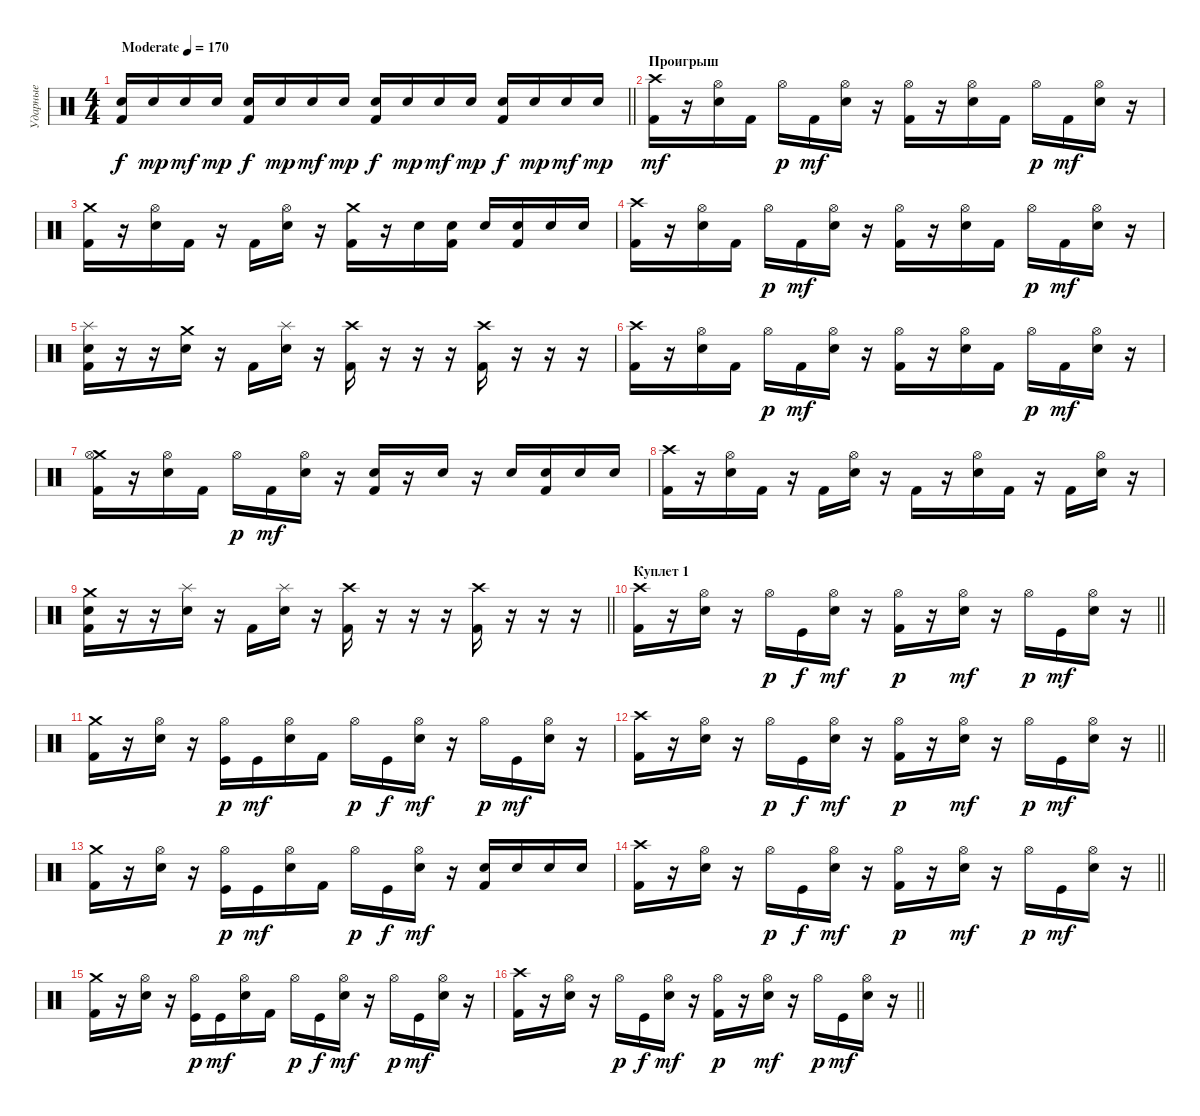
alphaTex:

\track ("Ударные" "Ударные") {instrument percussion}
\staff {score}
\articulation defaults
\ts (4 4)
\tempo (170 "Moderate")
\clef neutral
\barLineRight lightlight
\ks c
("Electric Snare (hit)" "Kick (hit) 2").16{dy f} "Snare (hit) 2".16{dy mp} "Snare (hit) 2".16{dy mf} "Snare (hit) 2".16{dy mp} ("Electric Snare (hit)" "Kick (hit) 2").16{dy f} "Snare (hit) 2".16{dy mp} "Snare (hit) 2".16{dy mf} "Snare (hit) 2".16{dy mp} ("Electric Snare (hit)" "Kick (hit) 2").16{dy f} "Snare (hit) 2".16{dy mp} "Snare (hit) 2".16{dy mf} "Snare (hit) 2".16{dy mp} ("Electric Snare (hit)" "Kick (hit) 2").16{dy f} "Snare (hit) 2".16{dy mp} "Snare (hit) 2".16{dy mf} "Snare (hit) 2".16{dy mp} |
\section ("" "Проигрыш")
("Crash high (hit)" "Kick (hit) 2").16{dy mf} r.16 ("Hi-Hat (open)" "Electric Snare (hit)").16 "Kick (hit) 2".16 "Hi-Hat (open)".16{dy p} "Kick (hit) 2".16{dy mf} ("Hi-Hat (open)" "Electric Snare (hit)").16 r.16 ("Hi-Hat (open)" "Kick (hit) 2").16 r.16 ("Hi-Hat (open)" "Electric Snare (hit)").16 "Kick (hit) 2".16 "Hi-Hat (open)".16{dy p} "Kick (hit) 2".16{dy mf} ("Hi-Hat (open)" "Electric Snare (hit)").16 r.16 |
("Crash medium (hit)" "Kick (hit) 2").16 r.16 ("Hi-Hat (open)" "Electric Snare (hit)").16 "Kick (hit) 2".16 r.16 "Kick (hit) 2".16 ("Hi-Hat (open)" "Electric Snare (hit)").16 r.16 ("Crash medium (hit)" "Kick (hit) 2").16 r.16 "Electric Snare (hit)".16 ("Electric Snare (hit)" "Kick (hit) 2").16 "Electric Snare (hit)".16 ("Electric Snare (hit)" "Kick (hit) 2").16 "Electric Snare (hit)".16 "Electric Snare (hit)".16 |
("Crash high (hit)" "Kick (hit) 2").16 r.16 ("Hi-Hat (open)" "Electric Snare (hit)").16 "Kick (hit) 2".16 "Hi-Hat (open)".16{dy p} "Kick (hit) 2".16{dy mf} ("Hi-Hat (open)" "Electric Snare (hit)").16 r.16 ("Hi-Hat (open)" "Kick (hit) 2").16 r.16 ("Hi-Hat (open)" "Electric Snare (hit)").16 "Kick (hit) 2".16 "Hi-Hat (open)".16{dy p} "Kick (hit) 2".16{dy mf} ("Hi-Hat (open)" "Electric Snare (hit)").16 r.16 |
("Splash (hit)" "Electric Snare (hit)" "Kick (hit) 2").16 r.16 r.16 ("Crash medium (hit)" "Electric Snare (hit)").16 r.16 "Kick (hit) 2".16 ("Splash (hit)" "Electric Snare (hit)").16 r.16 ("Crash high (hit)" "Kick (hit) 2").16 r.16 r.16 r.16 ("Crash high (hit)" "Kick (hit) 2").16 r.16 r.16 r.16 |
("Crash high (hit)" "Kick (hit) 2").16 r.16 ("Hi-Hat (open)" "Electric Snare (hit)").16 "Kick (hit) 2".16 "Hi-Hat (open)".16{dy p} "Kick (hit) 2".16{dy mf} ("Hi-Hat (open)" "Electric Snare (hit)").16 r.16 ("Hi-Hat (open)" "Kick (hit) 2").16 r.16 ("Hi-Hat (open)" "Electric Snare (hit)").16 "Kick (hit) 2".16 "Hi-Hat (open)".16{dy p} "Kick (hit) 2".16{dy mf} ("Hi-Hat (open)" "Electric Snare (hit)").16 r.16 |
("Crash medium (hit)" "Hi-Hat (open)" "Kick (hit) 2").16 r.16 ("Hi-Hat (open)" "Electric Snare (hit)").16 "Kick (hit) 2".16 "Hi-Hat (open)".16{dy p} "Kick (hit) 2".16{dy mf} ("Hi-Hat (open)" "Electric Snare (hit)").16 r.16 ("Electric Snare (hit)" "Kick (hit) 2").16 r.16 "Electric Snare (hit)".16 r.16 "Electric Snare (hit)".16 ("Electric Snare (hit)" "Kick (hit) 2").16 "Electric Snare (hit)".16 "Electric Snare (hit)".16 |
("Crash high (hit)" "Kick (hit) 2").16 r.16 ("Hi-Hat (open)" "Electric Snare (hit)").16 "Kick (hit) 2".16 r.16 "Kick (hit) 2".16 ("Hi-Hat (open)" "Electric Snare (hit)").16 r.16 "Kick (hit) 2".16 r.16 ("Hi-Hat (open)" "Electric Snare (hit)").16 "Kick (hit) 2".16 r.16 "Kick (hit) 2".16 ("Hi-Hat (open)" "Electric Snare (hit)").16 r.16 |
\barLineRight lightlight
("Crash medium (hit)" "Electric Snare (hit)" "Kick (hit) 2").16 r.16 r.16 ("Splash (hit)" "Electric Snare (hit)").16 r.16 "Kick (hit) 2".16 ("Splash (hit)" "Electric Snare (hit)").16 r.16 ("Crash high (hit)" "Kick (hit) 2").16 r.16 r.16 r.16 ("Crash high (hit)" "Kick (hit) 2").16 r.16 r.16 r.16 |
\section ("" "Куплет 1")
\barLineRight lightlight
("Crash high (hit)" "Kick (hit) 2").16 r.16 ("Hi-Hat (open)" "Electric Snare (hit)").16 r.16 "Hi-Hat (open)".16{dy p} "Kick (hit)".16{dy f} ("Hi-Hat (open)" "Electric Snare (hit)").16{dy mf} r.16 ("Hi-Hat (open)" "Kick (hit) 2").16{dy p} r.16 ("Hi-Hat (open)" "Electric Snare (hit)").16{dy mf} r.16 "Hi-Hat (open)".16{dy p} "Kick (hit)".16{dy mf} ("Hi-Hat (open)" "Electric Snare (hit)").16 r.16 |
("Crash medium (hit)" "Kick (hit) 2").16 r.16 ("Hi-Hat (open)" "Electric Snare (hit)").16 r.16 ("Hi-Hat (open)" "Kick (hit)").16{dy p} "Kick (hit)".16{dy mf} ("Hi-Hat (open)" "Electric Snare (hit)").16 "Kick (hit) 2".16 "Hi-Hat (open)".16{dy p} "Kick (hit)".16{dy f} ("Hi-Hat (open)" "Electric Snare (hit)").16{dy mf} r.16 "Hi-Hat (open)".16{dy p} "Kick (hit)".16{dy mf} ("Hi-Hat (open)" "Electric Snare (hit)").16 r.16 |
\barLineRight lightlight
("Crash high (hit)" "Kick (hit) 2").16 r.16 ("Hi-Hat (open)" "Electric Snare (hit)").16 r.16 "Hi-Hat (open)".16{dy p} "Kick (hit)".16{dy f} ("Hi-Hat (open)" "Electric Snare (hit)").16{dy mf} r.16 ("Hi-Hat (open)" "Kick (hit) 2").16{dy p} r.16 ("Hi-Hat (open)" "Electric Snare (hit)").16{dy mf} r.16 "Hi-Hat (open)".16{dy p} "Kick (hit)".16{dy mf} ("Hi-Hat (open)" "Electric Snare (hit)").16 r.16 |
("Crash medium (hit)" "Kick (hit) 2").16 r.16 ("Hi-Hat (open)" "Electric Snare (hit)").16 r.16 ("Hi-Hat (open)" "Kick (hit)").16{dy p} "Kick (hit)".16{dy mf} ("Hi-Hat (open)" "Electric Snare (hit)").16 "Kick (hit) 2".16 "Hi-Hat (open)".16{dy p} "Kick (hit)".16{dy f} ("Hi-Hat (open)" "Electric Snare (hit)").16{dy mf} r.16 ("Electric Snare (hit)" "Kick (hit) 2").16 "Electric Snare (hit)".16 "Electric Snare (hit)".16 "Electric Snare (hit)".16 |
\barLineRight lightlight
("Crash high (hit)" "Kick (hit) 2").16 r.16 ("Hi-Hat (open)" "Electric Snare (hit)").16 r.16 "Hi-Hat (open)".16{dy p} "Kick (hit)".16{dy f} ("Hi-Hat (open)" "Electric Snare (hit)").16{dy mf} r.16 ("Hi-Hat (open)" "Kick (hit) 2").16{dy p} r.16 ("Hi-Hat (open)" "Electric Snare (hit)").16{dy mf} r.16 "Hi-Hat (open)".16{dy p} "Kick (hit)".16{dy mf} ("Hi-Hat (open)" "Electric Snare (hit)").16 r.16 |
("Crash medium (hit)" "Kick (hit) 2").16 r.16 ("Hi-Hat (open)" "Electric Snare (hit)").16 r.16 ("Hi-Hat (open)" "Kick (hit)").16{dy p} "Kick (hit)".16{dy mf} ("Hi-Hat (open)" "Electric Snare (hit)").16 "Kick (hit) 2".16 "Hi-Hat (open)".16{dy p} "Kick (hit)".16{dy f} ("Hi-Hat (open)" "Electric Snare (hit)").16{dy mf} r.16 "Hi-Hat (open)".16{dy p} "Kick (hit)".16{dy mf} ("Hi-Hat (open)" "Electric Snare (hit)").16 r.16 |
\barLineRight lightlight
("Crash high (hit)" "Kick (hit) 2").16 r.16 ("Hi-Hat (open)" "Electric Snare (hit)").16 r.16 "Hi-Hat (open)".16{dy p} "Kick (hit)".16{dy f} ("Hi-Hat (open)" "Electric Snare (hit)").16{dy mf} r.16 ("Hi-Hat (open)" "Kick (hit) 2").16{dy p} r.16 ("Hi-Hat (open)" "Electric Snare (hit)").16{dy mf} r.16 "Hi-Hat (open)".16{dy p} "Kick (hit)".16{dy mf} ("Hi-Hat (open)" "Electric Snare (hit)").16 r.16
